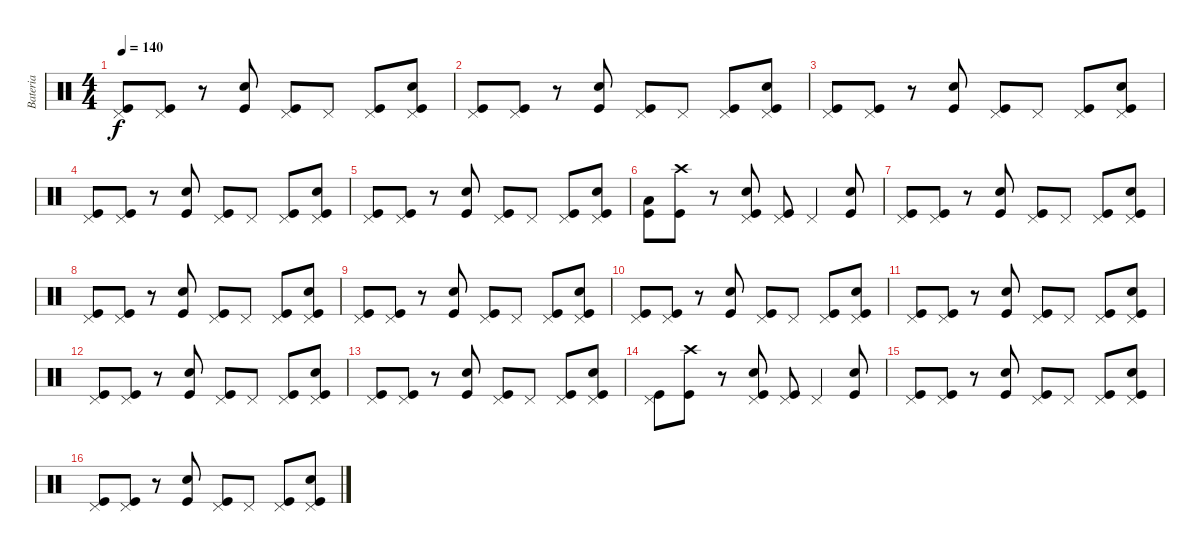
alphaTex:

\track ("Bateria" "Bateria") {instrument percussion}
\staff {score}
\articulation defaults
\ts (4 4)
\tempo 140
\clef neutral
\ks c
("Kick (hit)" "Pedal Hi-Hat (hit)").8{dy f} ("Kick (hit)" "Pedal Hi-Hat (hit)").8 r.8 ("Kick (hit)" "Snare (hit) 2").8 ("Kick (hit)" "Pedal Hi-Hat (hit)").8 "Pedal Hi-Hat (hit)".8 ("Kick (hit)" "Pedal Hi-Hat (hit)").8 ("Kick (hit)" "Snare (hit) 2" "Pedal Hi-Hat (hit)").8 |
("Kick (hit)" "Pedal Hi-Hat (hit)").8 ("Kick (hit)" "Pedal Hi-Hat (hit)").8 r.8 ("Kick (hit)" "Snare (hit) 2").8 ("Kick (hit)" "Pedal Hi-Hat (hit)").8 "Pedal Hi-Hat (hit)".8 ("Kick (hit)" "Pedal Hi-Hat (hit)").8 ("Kick (hit)" "Snare (hit) 2" "Pedal Hi-Hat (hit)").8 |
("Kick (hit)" "Pedal Hi-Hat (hit)").8 ("Kick (hit)" "Pedal Hi-Hat (hit)").8 r.8 ("Kick (hit)" "Snare (hit) 2").8 ("Kick (hit)" "Pedal Hi-Hat (hit)").8 "Pedal Hi-Hat (hit)".8 ("Kick (hit)" "Pedal Hi-Hat (hit)").8 ("Kick (hit)" "Snare (hit) 2" "Pedal Hi-Hat (hit)").8 |
("Kick (hit)" "Pedal Hi-Hat (hit)").8 ("Kick (hit)" "Pedal Hi-Hat (hit)").8 r.8 ("Kick (hit)" "Snare (hit) 2").8 ("Kick (hit)" "Pedal Hi-Hat (hit)").8 "Pedal Hi-Hat (hit)".8 ("Kick (hit)" "Pedal Hi-Hat (hit)").8 ("Kick (hit)" "Snare (hit) 2" "Pedal Hi-Hat (hit)").8 |
("Kick (hit)" "Pedal Hi-Hat (hit)").8 ("Kick (hit)" "Pedal Hi-Hat (hit)").8 r.8 ("Kick (hit)" "Snare (hit) 2").8 ("Kick (hit)" "Pedal Hi-Hat (hit)").8 "Pedal Hi-Hat (hit)".8 ("Kick (hit)" "Pedal Hi-Hat (hit)").8 ("Kick (hit)" "Snare (hit) 2" "Pedal Hi-Hat (hit)").8 |
("Kick (hit)" "Low Floor Tom (hit)").8 ("Kick (hit)" "Crash high (hit)").8 r.8 ("Kick (hit)" "Snare (hit) 2" "Pedal Hi-Hat (hit)").8 ("Kick (hit)" "Pedal Hi-Hat (hit)").8 "Pedal Hi-Hat (hit)".4 ("Kick (hit)" "Snare (hit) 2").8 |
("Kick (hit)" "Pedal Hi-Hat (hit)").8 ("Kick (hit)" "Pedal Hi-Hat (hit)").8 r.8 ("Kick (hit)" "Snare (hit) 2").8 ("Kick (hit)" "Pedal Hi-Hat (hit)").8 "Pedal Hi-Hat (hit)".8 ("Kick (hit)" "Pedal Hi-Hat (hit)").8 ("Kick (hit)" "Snare (hit) 2" "Pedal Hi-Hat (hit)").8 |
("Kick (hit)" "Pedal Hi-Hat (hit)").8 ("Kick (hit)" "Pedal Hi-Hat (hit)").8 r.8 ("Kick (hit)" "Snare (hit) 2").8 ("Kick (hit)" "Pedal Hi-Hat (hit)").8 "Pedal Hi-Hat (hit)".8 ("Kick (hit)" "Pedal Hi-Hat (hit)").8 ("Kick (hit)" "Snare (hit) 2" "Pedal Hi-Hat (hit)").8 |
("Kick (hit)" "Pedal Hi-Hat (hit)").8 ("Kick (hit)" "Pedal Hi-Hat (hit)").8 r.8 ("Kick (hit)" "Snare (hit) 2").8 ("Kick (hit)" "Pedal Hi-Hat (hit)").8 "Pedal Hi-Hat (hit)".8 ("Kick (hit)" "Pedal Hi-Hat (hit)").8 ("Kick (hit)" "Snare (hit) 2" "Pedal Hi-Hat (hit)").8 |
("Kick (hit)" "Pedal Hi-Hat (hit)").8 ("Kick (hit)" "Pedal Hi-Hat (hit)").8 r.8 ("Kick (hit)" "Snare (hit) 2").8 ("Kick (hit)" "Pedal Hi-Hat (hit)").8 "Pedal Hi-Hat (hit)".8 ("Kick (hit)" "Pedal Hi-Hat (hit)").8 ("Kick (hit)" "Snare (hit) 2" "Pedal Hi-Hat (hit)").8 |
("Kick (hit)" "Pedal Hi-Hat (hit)").8 ("Kick (hit)" "Pedal Hi-Hat (hit)").8 r.8 ("Kick (hit)" "Snare (hit) 2").8 ("Kick (hit)" "Pedal Hi-Hat (hit)").8 "Pedal Hi-Hat (hit)".8 ("Kick (hit)" "Pedal Hi-Hat (hit)").8 ("Kick (hit)" "Snare (hit) 2" "Pedal Hi-Hat (hit)").8 |
("Kick (hit)" "Pedal Hi-Hat (hit)").8 ("Kick (hit)" "Pedal Hi-Hat (hit)").8 r.8 ("Kick (hit)" "Snare (hit) 2").8 ("Kick (hit)" "Pedal Hi-Hat (hit)").8 "Pedal Hi-Hat (hit)".8 ("Kick (hit)" "Pedal Hi-Hat (hit)").8 ("Kick (hit)" "Snare (hit) 2" "Pedal Hi-Hat (hit)").8 |
("Kick (hit)" "Pedal Hi-Hat (hit)").8 ("Kick (hit)" "Pedal Hi-Hat (hit)").8 r.8 ("Kick (hit)" "Snare (hit) 2").8 ("Kick (hit)" "Pedal Hi-Hat (hit)").8 "Pedal Hi-Hat (hit)".8 ("Kick (hit)" "Pedal Hi-Hat (hit)").8 ("Kick (hit)" "Snare (hit) 2" "Pedal Hi-Hat (hit)").8 |
("Kick (hit)" "Pedal Hi-Hat (hit)").8 ("Kick (hit)" "Crash high (hit)").8 r.8 ("Kick (hit)" "Snare (hit) 2" "Pedal Hi-Hat (hit)").8 ("Kick (hit)" "Pedal Hi-Hat (hit)").8 "Pedal Hi-Hat (hit)".4 ("Kick (hit)" "Snare (hit) 2").8 |
("Kick (hit)" "Pedal Hi-Hat (hit)").8 ("Kick (hit)" "Pedal Hi-Hat (hit)").8 r.8 ("Kick (hit)" "Snare (hit) 2").8 ("Kick (hit)" "Pedal Hi-Hat (hit)").8 "Pedal Hi-Hat (hit)".8 ("Kick (hit)" "Pedal Hi-Hat (hit)").8 ("Kick (hit)" "Snare (hit) 2" "Pedal Hi-Hat (hit)").8 |
("Kick (hit)" "Pedal Hi-Hat (hit)").8 ("Kick (hit)" "Pedal Hi-Hat (hit)").8 r.8 ("Kick (hit)" "Snare (hit) 2").8 ("Kick (hit)" "Pedal Hi-Hat (hit)").8 "Pedal Hi-Hat (hit)".8 ("Kick (hit)" "Pedal Hi-Hat (hit)").8 ("Kick (hit)" "Snare (hit) 2" "Pedal Hi-Hat (hit)").8
